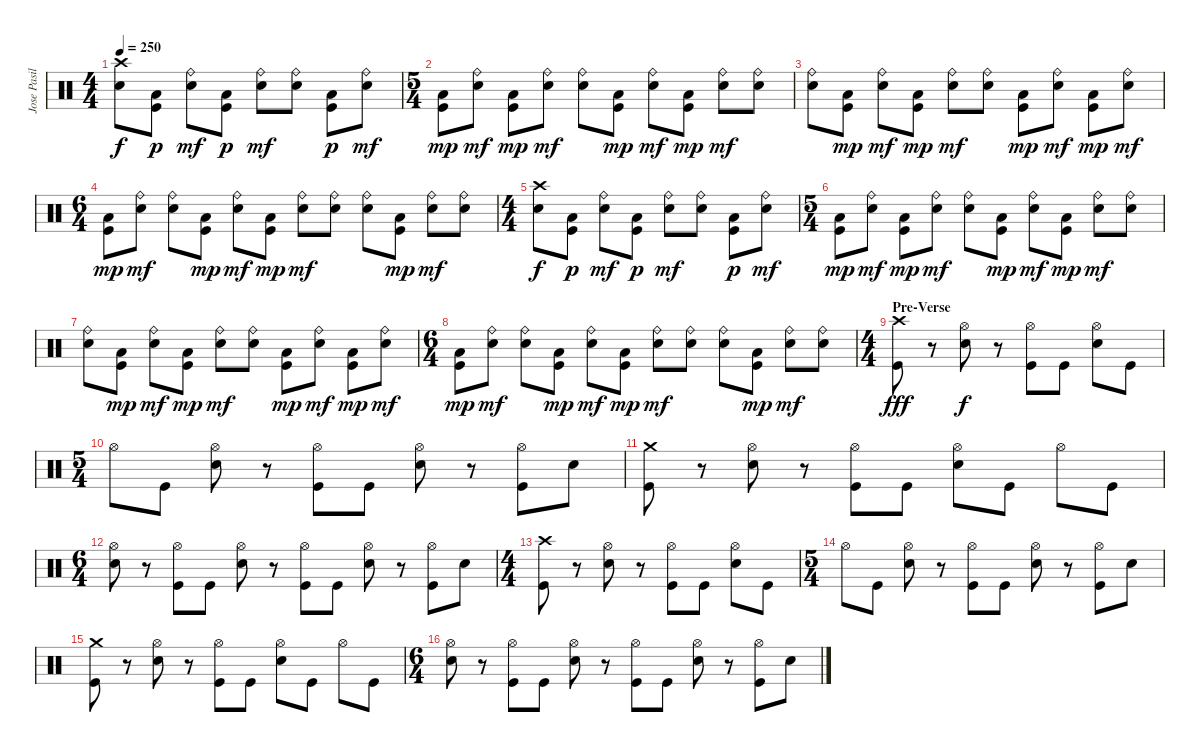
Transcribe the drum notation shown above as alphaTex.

\track ("Jose Pasillas II" "Jose Pasil") {instrument percussion}
\staff {score}
\articulation defaults
\ts (4 4)
\tempo 250
\clef neutral
\ks c
("Crash high (hit)" "Electric Snare (hit)").8{dy f} ("Low Floor Tom (hit)" "Kick (hit)").8{dy p} ("Ride (bell)" "Electric Snare (hit)").8{dy mf} ("Low Floor Tom (hit)" "Kick (hit)").8{dy p} ("Ride (bell)" "Electric Snare (hit)").8{dy mf} ("Ride (bell)" "Electric Snare (hit)").8 ("Low Floor Tom (hit)" "Kick (hit)").8{dy p} ("Ride (bell)" "Electric Snare (hit)").8{dy mf} |
\ts (5 4)
("Low Floor Tom (hit)" "Kick (hit)").8{dy mp} ("Ride (bell)" "Electric Snare (hit)").8{dy mf} ("Low Floor Tom (hit)" "Kick (hit)").8{dy mp} ("Ride (bell)" "Electric Snare (hit)").8{dy mf} ("Ride (bell)" "Electric Snare (hit)").8 ("Low Floor Tom (hit)" "Kick (hit)").8{dy mp} ("Ride (bell)" "Electric Snare (hit)").8{dy mf} ("Low Floor Tom (hit)" "Kick (hit)").8{dy mp} ("Ride (bell)" "Electric Snare (hit)").8{dy mf} ("Ride (bell)" "Electric Snare (hit)").8 |
("Ride (bell)" "Electric Snare (hit)").8 ("Low Floor Tom (hit)" "Kick (hit)").8{dy mp} ("Ride (bell)" "Electric Snare (hit)").8{dy mf} ("Low Floor Tom (hit)" "Kick (hit)").8{dy mp} ("Ride (bell)" "Electric Snare (hit)").8{dy mf} ("Ride (bell)" "Electric Snare (hit)").8 ("Low Floor Tom (hit)" "Kick (hit)").8{dy mp} ("Ride (bell)" "Electric Snare (hit)").8{dy mf} ("Low Floor Tom (hit)" "Kick (hit)").8{dy mp} ("Ride (bell)" "Electric Snare (hit)").8{dy mf} |
\ts (6 4)
("Low Floor Tom (hit)" "Kick (hit)").8{dy mp} ("Ride (bell)" "Electric Snare (hit)").8{dy mf} ("Ride (bell)" "Electric Snare (hit)").8 ("Low Floor Tom (hit)" "Kick (hit)").8{dy mp} ("Ride (bell)" "Electric Snare (hit)").8{dy mf} ("Low Floor Tom (hit)" "Kick (hit)").8{dy mp} ("Ride (bell)" "Electric Snare (hit)").8{dy mf} ("Ride (bell)" "Electric Snare (hit)").8 ("Ride (bell)" "Electric Snare (hit)").8 ("Low Floor Tom (hit)" "Kick (hit)").8{dy mp} ("Ride (bell)" "Electric Snare (hit)").8{dy mf} ("Ride (bell)" "Electric Snare (hit)").8 |
\ts (4 4)
("Crash high (hit)" "Electric Snare (hit)").8{dy f} ("Low Floor Tom (hit)" "Kick (hit)").8{dy p} ("Ride (bell)" "Electric Snare (hit)").8{dy mf} ("Low Floor Tom (hit)" "Kick (hit)").8{dy p} ("Ride (bell)" "Electric Snare (hit)").8{dy mf} ("Ride (bell)" "Electric Snare (hit)").8 ("Low Floor Tom (hit)" "Kick (hit)").8{dy p} ("Ride (bell)" "Electric Snare (hit)").8{dy mf} |
\ts (5 4)
("Low Floor Tom (hit)" "Kick (hit)").8{dy mp} ("Ride (bell)" "Electric Snare (hit)").8{dy mf} ("Low Floor Tom (hit)" "Kick (hit)").8{dy mp} ("Ride (bell)" "Electric Snare (hit)").8{dy mf} ("Ride (bell)" "Electric Snare (hit)").8 ("Low Floor Tom (hit)" "Kick (hit)").8{dy mp} ("Ride (bell)" "Electric Snare (hit)").8{dy mf} ("Low Floor Tom (hit)" "Kick (hit)").8{dy mp} ("Ride (bell)" "Electric Snare (hit)").8{dy mf} ("Ride (bell)" "Electric Snare (hit)").8 |
("Ride (bell)" "Electric Snare (hit)").8 ("Low Floor Tom (hit)" "Kick (hit)").8{dy mp} ("Ride (bell)" "Electric Snare (hit)").8{dy mf} ("Low Floor Tom (hit)" "Kick (hit)").8{dy mp} ("Ride (bell)" "Electric Snare (hit)").8{dy mf} ("Ride (bell)" "Electric Snare (hit)").8 ("Low Floor Tom (hit)" "Kick (hit)").8{dy mp} ("Ride (bell)" "Electric Snare (hit)").8{dy mf} ("Low Floor Tom (hit)" "Kick (hit)").8{dy mp} ("Ride (bell)" "Electric Snare (hit)").8{dy mf} |
\ts (6 4)
("Low Floor Tom (hit)" "Kick (hit)").8{dy mp} ("Ride (bell)" "Electric Snare (hit)").8{dy mf} ("Ride (bell)" "Electric Snare (hit)").8 ("Low Floor Tom (hit)" "Kick (hit)").8{dy mp} ("Ride (bell)" "Electric Snare (hit)").8{dy mf} ("Low Floor Tom (hit)" "Kick (hit)").8{dy mp} ("Ride (bell)" "Electric Snare (hit)").8{dy mf} ("Ride (bell)" "Electric Snare (hit)").8 ("Ride (bell)" "Electric Snare (hit)").8 ("Low Floor Tom (hit)" "Kick (hit)").8{dy mp} ("Ride (bell)" "Electric Snare (hit)").8{dy mf} ("Ride (bell)" "Electric Snare (hit)").8 |
\ts (4 4)
\section ("" "Pre-Verse")
("Crash high (hit)" "Kick (hit)").8{dy fff} r.8 ("Hi-Hat (open)" "Electric Snare (hit)").8{dy f} r.8 ("Hi-Hat (open)" "Kick (hit)").8 "Kick (hit)".8 ("Hi-Hat (open)" "Electric Snare (hit)").8 "Kick (hit)".8 |
\ts (5 4)
"Hi-Hat (open)".8 "Kick (hit)".8 ("Hi-Hat (open)" "Electric Snare (hit)").8 r.8 ("Hi-Hat (open)" "Kick (hit)").8 "Kick (hit)".8 ("Hi-Hat (open)" "Electric Snare (hit)").8 r.8 ("Hi-Hat (open)" "Kick (hit)").8 "Electric Snare (hit)".8 |
("Crash medium (hit)" "Kick (hit)").8 r.8 ("Hi-Hat (open)" "Electric Snare (hit)").8 r.8 ("Hi-Hat (open)" "Kick (hit)").8 "Kick (hit)".8 ("Hi-Hat (open)" "Electric Snare (hit)").8 "Kick (hit)".8 "Hi-Hat (open)".8 "Kick (hit)".8 |
\ts (6 4)
("Hi-Hat (open)" "Electric Snare (hit)").8 r.8 ("Hi-Hat (open)" "Kick (hit)").8 "Kick (hit)".8 ("Hi-Hat (open)" "Electric Snare (hit)").8 r.8 ("Hi-Hat (open)" "Kick (hit)").8 "Kick (hit)".8 ("Hi-Hat (open)" "Electric Snare (hit)").8 r.8 ("Hi-Hat (open)" "Kick (hit)").8 "Electric Snare (hit)".8 |
\ts (4 4)
("Crash high (hit)" "Kick (hit)").8 r.8 ("Hi-Hat (open)" "Electric Snare (hit)").8 r.8 ("Hi-Hat (open)" "Kick (hit)").8 "Kick (hit)".8 ("Hi-Hat (open)" "Electric Snare (hit)").8 "Kick (hit)".8 |
\ts (5 4)
"Hi-Hat (open)".8 "Kick (hit)".8 ("Hi-Hat (open)" "Electric Snare (hit)").8 r.8 ("Hi-Hat (open)" "Kick (hit)").8 "Kick (hit)".8 ("Hi-Hat (open)" "Electric Snare (hit)").8 r.8 ("Hi-Hat (open)" "Kick (hit)").8 "Electric Snare (hit)".8 |
("Crash medium (hit)" "Kick (hit)").8 r.8 ("Hi-Hat (open)" "Electric Snare (hit)").8 r.8 ("Hi-Hat (open)" "Kick (hit)").8 "Kick (hit)".8 ("Hi-Hat (open)" "Electric Snare (hit)").8 "Kick (hit)".8 "Hi-Hat (open)".8 "Kick (hit)".8 |
\ts (6 4)
("Hi-Hat (open)" "Electric Snare (hit)").8 r.8 ("Hi-Hat (open)" "Kick (hit)").8 "Kick (hit)".8 ("Hi-Hat (open)" "Electric Snare (hit)").8 r.8 ("Hi-Hat (open)" "Kick (hit)").8 "Kick (hit)".8 ("Hi-Hat (open)" "Electric Snare (hit)").8 r.8 ("Hi-Hat (open)" "Kick (hit)").8 "Electric Snare (hit)".8
